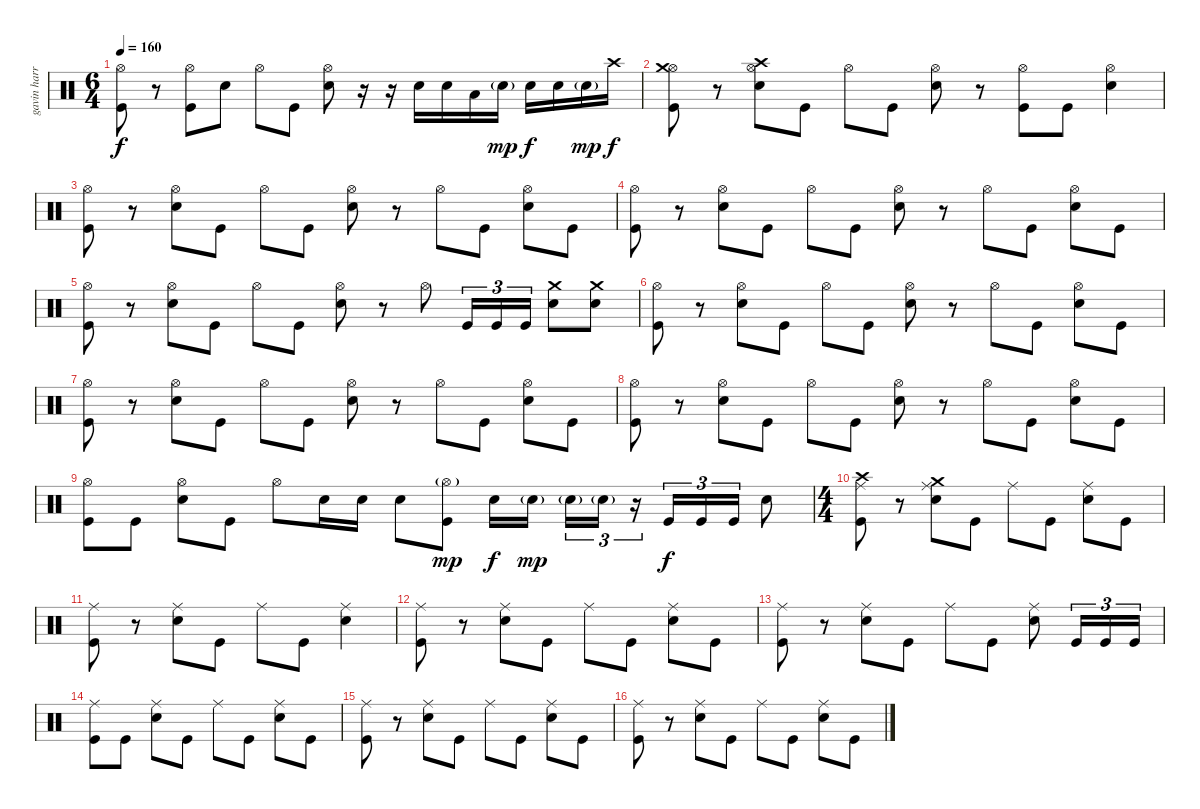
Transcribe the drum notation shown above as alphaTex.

\track ("gavin harrison ( drum ) " "gavin harr") {instrument percussion}
\staff {score}
\articulation defaults
\ts (6 4)
\tempo 160
\clef neutral
\ks c
("Hi-Hat (open)" "Kick (hit)").8{dy f} r.8 ("Hi-Hat (open)" "Kick (hit)").8 "Snare (hit) 2".8 "Hi-Hat (open)".8 "Kick (hit)".8 ("Hi-Hat (open)" "Snare (hit) 2").8 r.16 r.16 "Snare (hit) 2".16 "Snare (hit) 2".16 "Low Tom (hit)".16 "Snare (hit) 2"{g}.16{dy mp} "Snare (hit) 2".16{dy f} "Snare (hit) 2".16 "Snare (hit) 2"{g}.16{dy mp} "Crash high (hit)".16{dy f} |
("Hi-Hat (open)" "Crash medium (hit)" "Kick (hit)").8 r.8 ("Hi-Hat (open)" "Crash high (hit)" "Snare (hit) 2").8 "Kick (hit)".8 "Hi-Hat (open)".8 "Kick (hit)".8 ("Hi-Hat (open)" "Snare (hit) 2").8 r.8 ("Hi-Hat (open)" "Kick (hit)").8 "Kick (hit)".8 ("Hi-Hat (open)" "Snare (hit) 2").4 |
("Hi-Hat (open)" "Kick (hit)").8 r.8 ("Hi-Hat (open)" "Snare (hit) 2").8 "Kick (hit)".8 "Hi-Hat (open)".8 "Kick (hit)".8 ("Hi-Hat (open)" "Snare (hit) 2").8 r.8 "Hi-Hat (open)".8 "Kick (hit)".8 ("Hi-Hat (open)" "Snare (hit) 2").8 "Kick (hit)".8 |
("Hi-Hat (open)" "Kick (hit)").8 r.8 ("Hi-Hat (open)" "Snare (hit) 2").8 "Kick (hit)".8 "Hi-Hat (open)".8 "Kick (hit)".8 ("Hi-Hat (open)" "Snare (hit) 2").8 r.8 "Hi-Hat (open)".8 "Kick (hit)".8 ("Hi-Hat (open)" "Snare (hit) 2").8 "Kick (hit)".8 |
("Hi-Hat (open)" "Kick (hit)").8 r.8 ("Hi-Hat (open)" "Snare (hit) 2").8 "Kick (hit)".8 "Hi-Hat (open)".8 "Kick (hit)".8 ("Hi-Hat (open)" "Snare (hit) 2").8 r.8 "Hi-Hat (open)".8 "Kick (hit)".16{tu (3 2)} "Kick (hit)".16{tu (3 2)} "Kick (hit)".16{tu (3 2)} ("Crash medium (hit)" "Snare (hit) 2").8 ("Crash medium (hit)" "Snare (hit) 2").8 |
("Hi-Hat (open)" "Kick (hit)").8 r.8 ("Hi-Hat (open)" "Snare (hit) 2").8 "Kick (hit)".8 "Hi-Hat (open)".8 "Kick (hit)".8 ("Hi-Hat (open)" "Snare (hit) 2").8 r.8 "Hi-Hat (open)".8 "Kick (hit)".8 ("Hi-Hat (open)" "Snare (hit) 2").8 "Kick (hit)".8 |
("Hi-Hat (open)" "Kick (hit)").8 r.8 ("Hi-Hat (open)" "Snare (hit) 2").8 "Kick (hit)".8 "Hi-Hat (open)".8 "Kick (hit)".8 ("Hi-Hat (open)" "Snare (hit) 2").8 r.8 "Hi-Hat (open)".8 "Kick (hit)".8 ("Hi-Hat (open)" "Snare (hit) 2").8 "Kick (hit)".8 |
("Hi-Hat (open)" "Kick (hit)").8 r.8 ("Hi-Hat (open)" "Snare (hit) 2").8 "Kick (hit)".8 "Hi-Hat (open)".8 "Kick (hit)".8 ("Hi-Hat (open)" "Snare (hit) 2").8 r.8 "Hi-Hat (open)".8 "Kick (hit)".8 ("Hi-Hat (open)" "Snare (hit) 2").8 "Kick (hit)".8 |
("Hi-Hat (open)" "Kick (hit)").8 "Kick (hit)".8 ("Hi-Hat (open)" "Snare (hit) 2").8 "Kick (hit)".8 "Hi-Hat (open)".8 "Snare (hit) 2".16 "Snare (hit) 2".16 "Snare (hit) 2".8 ("Hi-Hat (open)"{g} "Kick (hit)").8{dy mp} "Snare (hit) 2".16{dy f} "Snare (hit) 2"{g}.16{dy mp beam splitsecondary} "Snare (hit) 2"{g}.16{tu (3 2)} "Snare (hit) 2"{g}.16{tu (3 2)} r.16{tu (3 2)} "Kick (hit)".16{tu (3 2) dy f} "Kick (hit)".16{tu (3 2)} "Kick (hit)".16{tu (3 2)} "Snare (hit) 2".8 |
\ts (4 4)
("Ride (middle)" "Crash high (hit)" "Kick (hit)").8 r.8 ("Ride (middle)" "Crash medium (hit)" "Snare (hit) 2").8 "Kick (hit)".8 "Ride (middle)".8 "Kick (hit)".8 ("Ride (middle)" "Snare (hit) 2").8 "Kick (hit)".8 |
("Ride (middle)" "Kick (hit)").8 r.8 ("Ride (middle)" "Snare (hit) 2").8 "Kick (hit)".8 "Ride (middle)".8 "Kick (hit)".8 ("Ride (middle)" "Snare (hit) 2").4 |
("Ride (middle)" "Kick (hit)").8 r.8 ("Ride (middle)" "Snare (hit) 2").8 "Kick (hit)".8 "Ride (middle)".8 "Kick (hit)".8 ("Ride (middle)" "Snare (hit) 2").8 "Kick (hit)".8 |
("Ride (middle)" "Kick (hit)").8 r.8 ("Ride (middle)" "Snare (hit) 2").8 "Kick (hit)".8 "Ride (middle)".8 "Kick (hit)".8 ("Ride (middle)" "Snare (hit) 2").8 "Kick (hit)".16{tu (3 2)} "Kick (hit)".16{tu (3 2)} "Kick (hit)".16{tu (3 2)} |
("Ride (middle)" "Kick (hit)").8 "Kick (hit)".8 ("Ride (middle)" "Snare (hit) 2").8 "Kick (hit)".8 "Ride (middle)".8 "Kick (hit)".8 ("Ride (middle)" "Snare (hit) 2").8 "Kick (hit)".8 |
("Ride (middle)" "Kick (hit)").8 r.8 ("Ride (middle)" "Snare (hit) 2").8 "Kick (hit)".8 "Ride (middle)".8 "Kick (hit)".8 ("Ride (middle)" "Snare (hit) 2").8 "Kick (hit)".8 |
("Ride (middle)" "Kick (hit)").8 r.8 ("Ride (middle)" "Snare (hit) 2").8 "Kick (hit)".8 "Ride (middle)".8 "Kick (hit)".8 ("Ride (middle)" "Snare (hit) 2").8 "Kick (hit)".8
